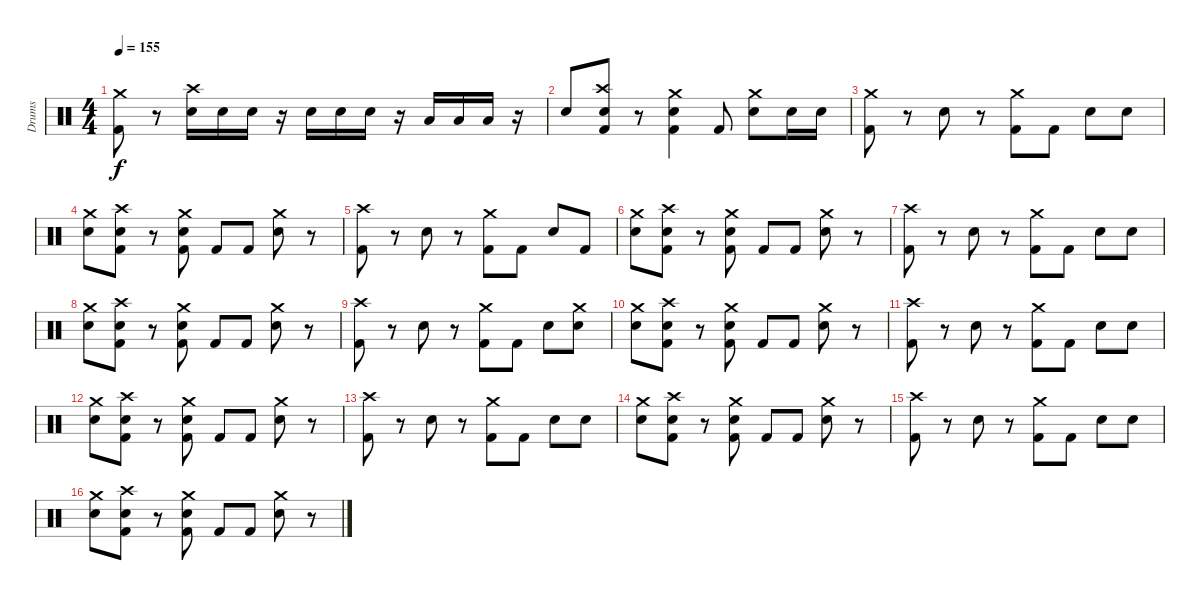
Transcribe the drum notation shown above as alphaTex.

\track ("Drums" "Drums") {instrument percussion}
\staff {score}
\articulation defaults
\ts (4 4)
\tempo 155
\clef neutral
\ks c
("Crash medium (hit)" "Kick (hit) 2").8{dy f} r.8 ("Crash high (hit)" "Snare (hit) 2").16 "Snare (hit) 2".16 "Snare (hit) 2".16 r.16 "Snare (hit) 2".16 "Snare (hit) 2".16 "Snare (hit) 2".16 r.16 "Low Tom (hit)".16 "Low Tom (hit)".16 "Low Tom (hit)".16 r.16 |
"Snare (hit) 2".8 ("Crash high (hit)" "Snare (hit) 2" "Kick (hit) 2").8 r.8 ("Crash medium (hit)" "Snare (hit) 2" "Kick (hit) 2").4 "Kick (hit) 2".8 ("Crash medium (hit)" "Snare (hit) 2").8 "Snare (hit) 2".16 "Snare (hit) 2".16 |
("Crash medium (hit)" "Kick (hit) 2").8 r.8 "Snare (hit) 2".8 r.8 ("Crash medium (hit)" "Kick (hit) 2").8 "Kick (hit) 2".8 "Snare (hit) 2".8 "Snare (hit) 2".8 |
("Crash medium (hit)" "Snare (hit) 2").8 ("Crash high (hit)" "Snare (hit) 2" "Kick (hit) 2").8 r.8 ("Crash medium (hit)" "Snare (hit) 2" "Kick (hit) 2").8 "Kick (hit) 2".8 "Kick (hit) 2".8 ("Crash medium (hit)" "Snare (hit) 2").8 r.8 |
("Crash high (hit)" "Kick (hit) 2").8 r.8 "Snare (hit) 2".8 r.8 ("Crash medium (hit)" "Kick (hit) 2").8 "Kick (hit) 2".8 "Snare (hit) 2".8 "Kick (hit) 2".8 |
("Crash medium (hit)" "Snare (hit) 2").8 ("Crash high (hit)" "Snare (hit) 2" "Kick (hit) 2").8 r.8 ("Crash medium (hit)" "Snare (hit) 2" "Kick (hit) 2").8 "Kick (hit) 2".8 "Kick (hit) 2".8 ("Crash medium (hit)" "Snare (hit) 2").8 r.8 |
("Crash high (hit)" "Kick (hit) 2").8 r.8 "Snare (hit) 2".8 r.8 ("Crash medium (hit)" "Kick (hit) 2").8 "Kick (hit) 2".8 "Snare (hit) 2".8 "Snare (hit) 2".8 |
("Crash medium (hit)" "Snare (hit) 2").8 ("Crash high (hit)" "Snare (hit) 2" "Kick (hit) 2").8 r.8 ("Crash medium (hit)" "Snare (hit) 2" "Kick (hit) 2").8 "Kick (hit) 2".8 "Kick (hit) 2".8 ("Crash medium (hit)" "Snare (hit) 2").8 r.8 |
("Crash high (hit)" "Kick (hit) 2").8 r.8 "Snare (hit) 2".8 r.8 ("Crash medium (hit)" "Kick (hit) 2").8 "Kick (hit) 2".8 "Snare (hit) 2".8 ("Crash medium (hit)" "Snare (hit) 2").8 |
("Crash medium (hit)" "Snare (hit) 2").8 ("Crash high (hit)" "Snare (hit) 2" "Kick (hit) 2").8 r.8 ("Crash medium (hit)" "Snare (hit) 2" "Kick (hit) 2").8 "Kick (hit) 2".8 "Kick (hit) 2".8 ("Crash medium (hit)" "Snare (hit) 2").8 r.8 |
("Crash high (hit)" "Kick (hit) 2").8 r.8 "Snare (hit) 2".8 r.8 ("Crash medium (hit)" "Kick (hit) 2").8 "Kick (hit) 2".8 "Snare (hit) 2".8 "Snare (hit) 2".8 |
("Crash medium (hit)" "Snare (hit) 2").8 ("Crash high (hit)" "Snare (hit) 2" "Kick (hit) 2").8 r.8 ("Crash medium (hit)" "Snare (hit) 2" "Kick (hit) 2").8 "Kick (hit) 2".8 "Kick (hit) 2".8 ("Crash medium (hit)" "Snare (hit) 2").8 r.8 |
("Crash high (hit)" "Kick (hit) 2").8 r.8 "Snare (hit) 2".8 r.8 ("Crash medium (hit)" "Kick (hit) 2").8 "Kick (hit) 2".8 "Snare (hit) 2".8 "Snare (hit) 2".8 |
("Crash medium (hit)" "Snare (hit) 2").8 ("Crash high (hit)" "Snare (hit) 2" "Kick (hit) 2").8 r.8 ("Crash medium (hit)" "Snare (hit) 2" "Kick (hit) 2").8 "Kick (hit) 2".8 "Kick (hit) 2".8 ("Crash medium (hit)" "Snare (hit) 2").8 r.8 |
("Crash high (hit)" "Kick (hit) 2").8 r.8 "Snare (hit) 2".8 r.8 ("Crash medium (hit)" "Kick (hit) 2").8 "Kick (hit) 2".8 "Snare (hit) 2".8 "Snare (hit) 2".8 |
("Crash medium (hit)" "Snare (hit) 2").8 ("Crash high (hit)" "Snare (hit) 2" "Kick (hit) 2").8 r.8 ("Crash medium (hit)" "Snare (hit) 2" "Kick (hit) 2").8 "Kick (hit) 2".8 "Kick (hit) 2".8 ("Crash medium (hit)" "Snare (hit) 2").8 r.8
